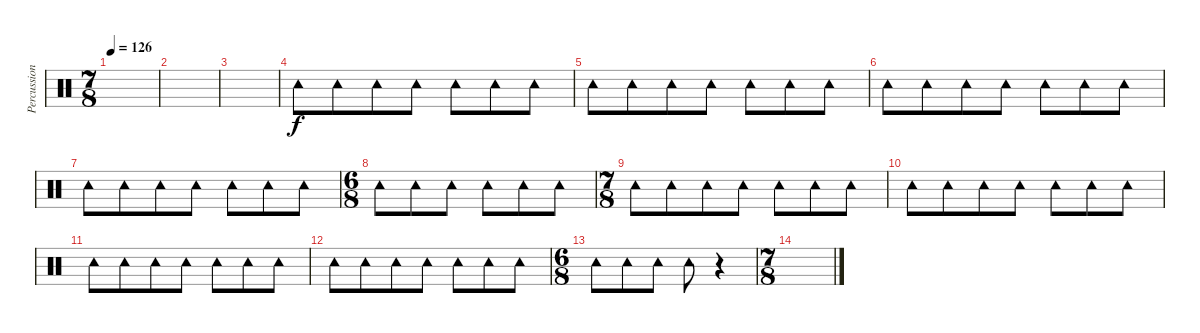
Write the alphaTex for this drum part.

\track ("Percussion" "Percussion") {instrument percussion}
\staff {score}
\articulation defaults
\ts (7 8)
\tempo 126
\clef neutral
\ks c
|
|
|
"Tambourine (hit)".8{volume 4} "Tambourine (hit)".8 "Tambourine (hit)".8 "Tambourine (hit)".8 "Tambourine (hit)".8 "Tambourine (hit)".8 "Tambourine (hit)".8 |
"Tambourine (hit)".8 "Tambourine (hit)".8 "Tambourine (hit)".8 "Tambourine (hit)".8 "Tambourine (hit)".8 "Tambourine (hit)".8 "Tambourine (hit)".8 |
"Tambourine (hit)".8 "Tambourine (hit)".8 "Tambourine (hit)".8 "Tambourine (hit)".8 "Tambourine (hit)".8 "Tambourine (hit)".8 "Tambourine (hit)".8 |
"Tambourine (hit)".8 "Tambourine (hit)".8 "Tambourine (hit)".8 "Tambourine (hit)".8 "Tambourine (hit)".8 "Tambourine (hit)".8 "Tambourine (hit)".8 |
\ts (6 8)
"Tambourine (hit)".8 "Tambourine (hit)".8 "Tambourine (hit)".8 "Tambourine (hit)".8 "Tambourine (hit)".8 "Tambourine (hit)".8 |
\ts (7 8)
"Tambourine (hit)".8 "Tambourine (hit)".8 "Tambourine (hit)".8 "Tambourine (hit)".8 "Tambourine (hit)".8 "Tambourine (hit)".8 "Tambourine (hit)".8 |
"Tambourine (hit)".8 "Tambourine (hit)".8 "Tambourine (hit)".8 "Tambourine (hit)".8 "Tambourine (hit)".8 "Tambourine (hit)".8 "Tambourine (hit)".8 |
"Tambourine (hit)".8 "Tambourine (hit)".8 "Tambourine (hit)".8 "Tambourine (hit)".8 "Tambourine (hit)".8 "Tambourine (hit)".8 "Tambourine (hit)".8 |
"Tambourine (hit)".8 "Tambourine (hit)".8 "Tambourine (hit)".8 "Tambourine (hit)".8 "Tambourine (hit)".8 "Tambourine (hit)".8 "Tambourine (hit)".8 |
\ts (6 8)
"Tambourine (hit)".8 "Tambourine (hit)".8 "Tambourine (hit)".8 "Tambourine (hit)".8 r.4 |
\ts (7 8)
